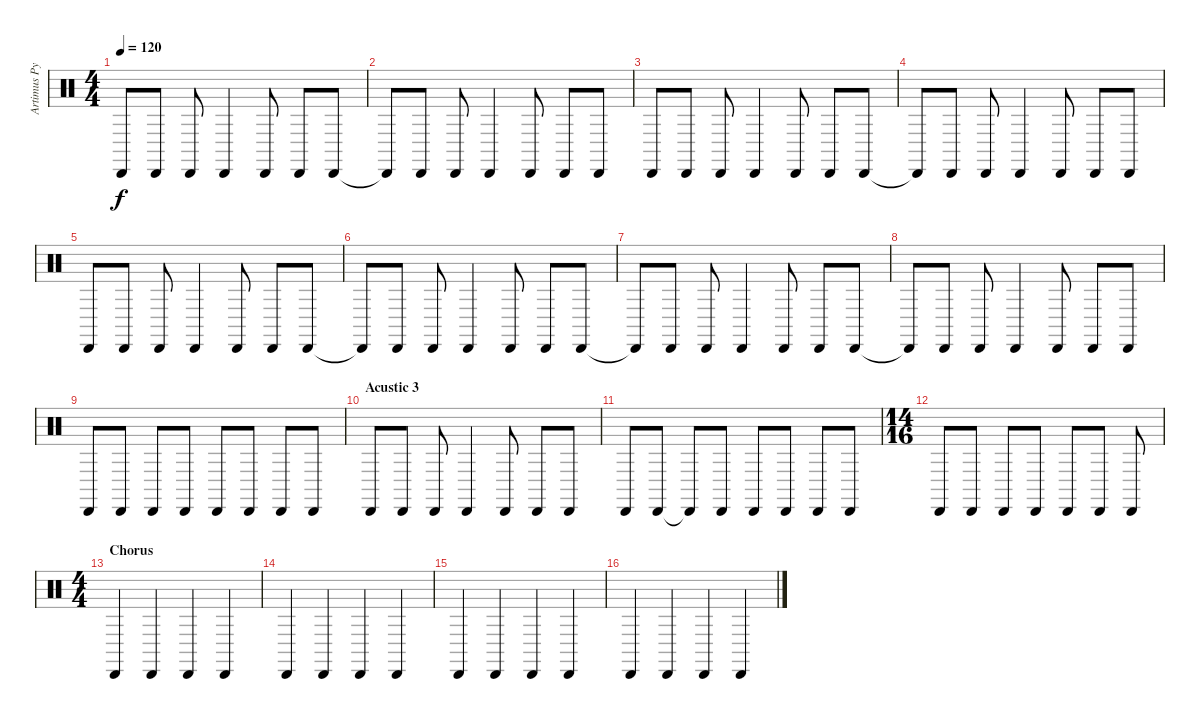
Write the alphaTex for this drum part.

\track ("Artimus Pyle" "Artimus Py") {instrument percussion}
\staff {score}
\articulation defaults
\ts (4 4)
\tempo 120
\clef neutral
\ks c "Cabasa (hit)"{t}.8{dy f} "Cabasa (hit)".8 "Cabasa (hit)".8 "Cabasa (hit)".4 "Cabasa (hit)".8 "Cabasa (hit)".8 "Cabasa (hit)".8
|
"Cabasa (hit)"{t}.8 "Cabasa (hit)".8 "Cabasa (hit)".8 "Cabasa (hit)".4 "Cabasa (hit)".8 "Cabasa (hit)".8 "Cabasa (hit)".8 |
"Cabasa (hit)".8 "Cabasa (hit)".8 "Cabasa (hit)".8 "Cabasa (hit)".4 "Cabasa (hit)".8 "Cabasa (hit)".8 "Cabasa (hit)".8 |
"Cabasa (hit)"{t}.8 "Cabasa (hit)".8 "Cabasa (hit)".8 "Cabasa (hit)".4 "Cabasa (hit)".8 "Cabasa (hit)".8 "Cabasa (hit)".8 |
"Cabasa (hit)".8 "Cabasa (hit)".8 "Cabasa (hit)".8 "Cabasa (hit)".4 "Cabasa (hit)".8 "Cabasa (hit)".8 "Cabasa (hit)".8 |
"Cabasa (hit)"{t}.8 "Cabasa (hit)".8 "Cabasa (hit)".8 "Cabasa (hit)".4 "Cabasa (hit)".8 "Cabasa (hit)".8 "Cabasa (hit)".8 |
"Cabasa (hit)"{t}.8 "Cabasa (hit)".8 "Cabasa (hit)".8 "Cabasa (hit)".4 "Cabasa (hit)".8 "Cabasa (hit)".8 "Cabasa (hit)".8 |
"Cabasa (hit)"{t}.8 "Cabasa (hit)".8 "Cabasa (hit)".8 "Cabasa (hit)".4 "Cabasa (hit)".8 "Cabasa (hit)".8 "Cabasa (hit)".8 |
"Cabasa (hit)".8 "Cabasa (hit)".8 "Cabasa (hit)".8 "Cabasa (hit)".8 "Cabasa (hit)".8 "Cabasa (hit)".8 "Cabasa (hit)".8 "Cabasa (hit)".8 |
\section ("" "Acustic 3")
"Cabasa (hit)".8 "Cabasa (hit)".8 "Cabasa (hit)".8 "Cabasa (hit)".4 "Cabasa (hit)".8 "Cabasa (hit)".8 "Cabasa (hit)".8 |
"Cabasa (hit)".8 "Cabasa (hit)".8 "Cabasa (hit)"{t}.8 "Cabasa (hit)".8 "Cabasa (hit)".8 "Cabasa (hit)".8 "Cabasa (hit)".8 "Cabasa (hit)".8 |
\ts (14 16)
"Cabasa (hit)".8 "Cabasa (hit)".8 "Cabasa (hit)".8 "Cabasa (hit)".8 "Cabasa (hit)".8 "Cabasa (hit)".8 "Cabasa (hit)".8 |
\ts (4 4)
\section ("" "Chorus")
"Cabasa (hit)".4 "Cabasa (hit)".4 "Cabasa (hit)".4 "Cabasa (hit)".4 |
"Cabasa (hit)".4 "Cabasa (hit)".4 "Cabasa (hit)".4 "Cabasa (hit)".4 |
"Cabasa (hit)".4 "Cabasa (hit)".4 "Cabasa (hit)".4 "Cabasa (hit)".4 |
"Cabasa (hit)".4 "Cabasa (hit)".4 "Cabasa (hit)".4 "Cabasa (hit)".4
